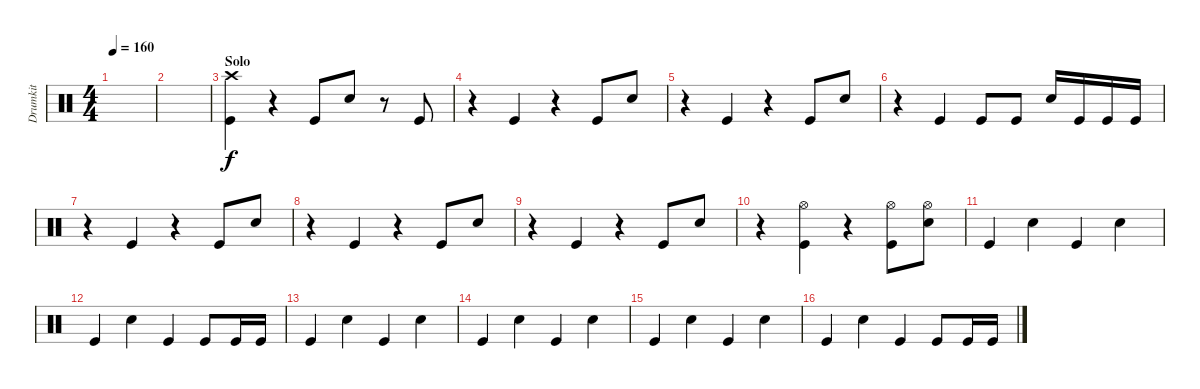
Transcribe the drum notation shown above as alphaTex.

\track ("Drumkit" "Drumkit") {instrument percussion}
\staff {score}
\articulation defaults
\ts (4 4)
\tempo 160
\clef neutral
\ks c
|
|
\section ("" "Solo")
("Kick (hit)" "Crash high (hit)").4 r.4 "Kick (hit)".8 "Hand Clap (hit)".8 r.8 "Kick (hit)".8 |
r.4 "Kick (hit)".4 r.4 "Kick (hit)".8 "Hand Clap (hit)".8 |
r.4 "Kick (hit)".4 r.4 "Kick (hit)".8 "Hand Clap (hit)".8 |
r.4 "Kick (hit)".4 "Kick (hit)".8 "Kick (hit)".8 "Hand Clap (hit)".16 "Kick (hit)".16 "Kick (hit)".16 "Kick (hit)".16 |
r.4 "Kick (hit)".4 r.4 "Kick (hit)".8 "Hand Clap (hit)".8 |
r.4 "Kick (hit)".4 r.4 "Kick (hit)".8 "Hand Clap (hit)".8 |
r.4 "Kick (hit)".4 r.4 "Kick (hit)".8 "Hand Clap (hit)".8 |
r.4 ("Kick (hit)" "Hi-Hat (open)").4 r.4 ("Kick (hit)" "Hi-Hat (open)").8 ("Hand Clap (hit)" "Hi-Hat (open)").8 |
"Kick (hit)".4 "Hand Clap (hit)".4 "Kick (hit)".4 "Hand Clap (hit)".4 |
"Kick (hit)".4 "Hand Clap (hit)".4 "Kick (hit)".4 "Kick (hit)".8 "Kick (hit)".16 "Kick (hit)".16 |
"Kick (hit)".4 "Hand Clap (hit)".4 "Kick (hit)".4 "Hand Clap (hit)".4 |
"Kick (hit)".4 "Hand Clap (hit)".4 "Kick (hit)".4 "Hand Clap (hit)".4 |
"Kick (hit)".4 "Hand Clap (hit)".4 "Kick (hit)".4 "Hand Clap (hit)".4 |
"Kick (hit)".4 "Hand Clap (hit)".4 "Kick (hit)".4 "Kick (hit)".8 "Kick (hit)".16 "Kick (hit)".16
